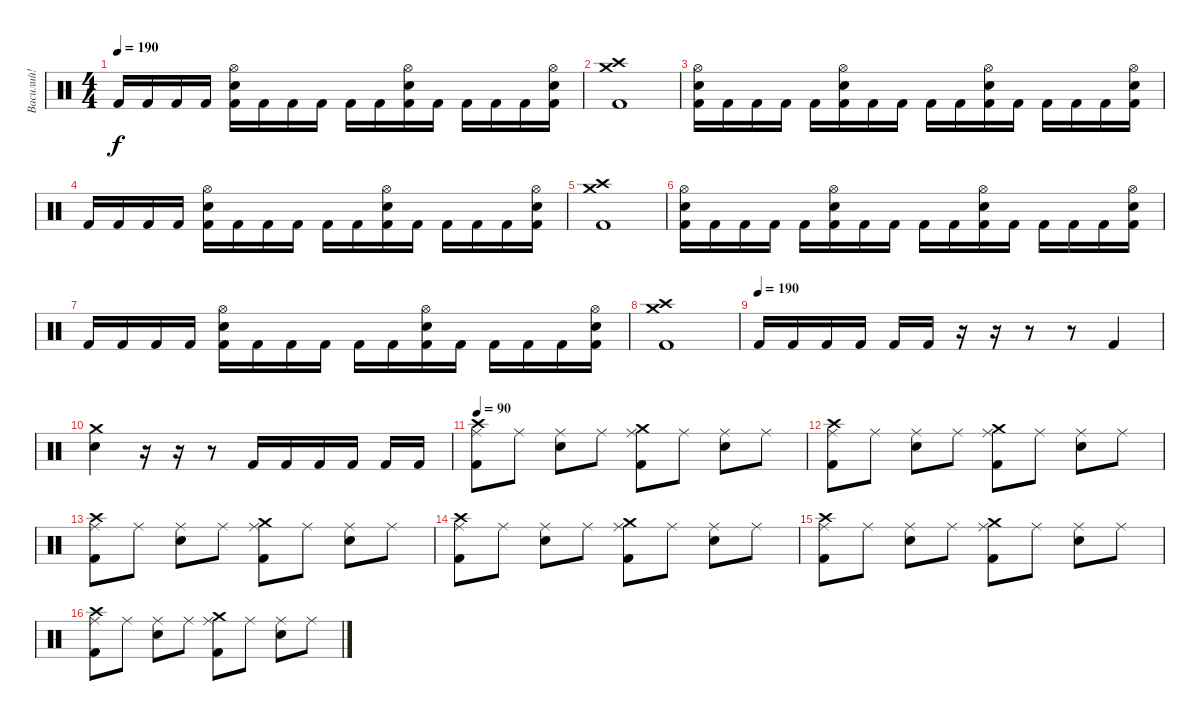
\track ("Василий!" "Василий!") {instrument percussion}
\staff {score}
\articulation defaults
\ts (4 4)
\tempo 190
\clef neutral
\ks c "Kick (hit) 2".16{dy f} "Kick (hit) 2".16 "Kick (hit) 2".16 "Kick (hit) 2".16
("Kick (hit) 2" "Electric Snare (hit)" "Hi-Hat (open)").16 "Kick (hit) 2".16 "Kick (hit) 2".16 "Kick (hit) 2".16 "Kick (hit) 2".16 "Kick (hit) 2".16 ("Kick (hit) 2" "Electric Snare (hit)" "Hi-Hat (open)").16 "Kick (hit) 2".16 "Kick (hit) 2".16 "Kick (hit) 2".16 "Kick (hit) 2".16 ("Kick (hit) 2" "Electric Snare (hit)" "Hi-Hat (open)").16 |
("Kick (hit) 2" "Crash high (hit)" "Crash medium (hit)").1 |
("Kick (hit) 2" "Electric Snare (hit)" "Hi-Hat (open)").16 "Kick (hit) 2".16 "Kick (hit) 2".16 "Kick (hit) 2".16 "Kick (hit) 2".16 ("Kick (hit) 2" "Electric Snare (hit)" "Hi-Hat (open)").16 "Kick (hit) 2".16 "Kick (hit) 2".16 "Kick (hit) 2".16 "Kick (hit) 2".16 ("Kick (hit) 2" "Electric Snare (hit)" "Hi-Hat (open)").16 "Kick (hit) 2".16 "Kick (hit) 2".16 "Kick (hit) 2".16 "Kick (hit) 2".16 ("Kick (hit) 2" "Electric Snare (hit)" "Hi-Hat (open)").16 |
"Kick (hit) 2".16 "Kick (hit) 2".16 "Kick (hit) 2".16 "Kick (hit) 2".16 ("Kick (hit) 2" "Electric Snare (hit)" "Hi-Hat (open)").16 "Kick (hit) 2".16 "Kick (hit) 2".16 "Kick (hit) 2".16 "Kick (hit) 2".16 "Kick (hit) 2".16 ("Kick (hit) 2" "Electric Snare (hit)" "Hi-Hat (open)").16 "Kick (hit) 2".16 "Kick (hit) 2".16 "Kick (hit) 2".16 "Kick (hit) 2".16 ("Kick (hit) 2" "Electric Snare (hit)" "Hi-Hat (open)").16 |
("Kick (hit) 2" "Crash high (hit)" "Crash medium (hit)").1 |
("Kick (hit) 2" "Electric Snare (hit)" "Hi-Hat (open)").16 "Kick (hit) 2".16 "Kick (hit) 2".16 "Kick (hit) 2".16 "Kick (hit) 2".16 ("Kick (hit) 2" "Electric Snare (hit)" "Hi-Hat (open)").16 "Kick (hit) 2".16 "Kick (hit) 2".16 "Kick (hit) 2".16 "Kick (hit) 2".16 ("Kick (hit) 2" "Electric Snare (hit)" "Hi-Hat (open)").16 "Kick (hit) 2".16 "Kick (hit) 2".16 "Kick (hit) 2".16 "Kick (hit) 2".16 ("Kick (hit) 2" "Electric Snare (hit)" "Hi-Hat (open)").16 |
"Kick (hit) 2".16 "Kick (hit) 2".16 "Kick (hit) 2".16 "Kick (hit) 2".16 ("Kick (hit) 2" "Electric Snare (hit)" "Hi-Hat (open)").16 "Kick (hit) 2".16 "Kick (hit) 2".16 "Kick (hit) 2".16 "Kick (hit) 2".16 "Kick (hit) 2".16 ("Kick (hit) 2" "Electric Snare (hit)" "Hi-Hat (open)").16 "Kick (hit) 2".16 "Kick (hit) 2".16 "Kick (hit) 2".16 "Kick (hit) 2".16 ("Kick (hit) 2" "Electric Snare (hit)" "Hi-Hat (open)").16 |
("Kick (hit) 2" "Crash high (hit)" "Crash medium (hit)").1 |
\tempo (190)
"Kick (hit) 2".16 "Kick (hit) 2".16 "Kick (hit) 2".16 "Kick (hit) 2".16 "Kick (hit) 2".16 "Kick (hit) 2".16 r.16 r.16 r.8 r.8 "Kick (hit) 2".4 |
("Electric Snare (hit)" "Crash medium (hit)").4 r.16 r.16 r.8 "Kick (hit) 2".16 "Kick (hit) 2".16 "Kick (hit) 2".16 "Kick (hit) 2".16 "Kick (hit) 2".16 "Kick (hit) 2".16 |
\tempo 90
("Ride (middle)" "Kick (hit) 2" "Crash high (hit)").8 "Ride (middle)".8 ("Ride (middle)" "Electric Snare (hit)").8 "Ride (middle)".8 ("Ride (middle)" "Kick (hit) 2" "Crash medium (hit)").8 "Ride (middle)".8 ("Ride (middle)" "Electric Snare (hit)").8 "Ride (middle)".8 |
("Ride (middle)" "Kick (hit) 2" "Crash high (hit)").8 "Ride (middle)".8 ("Ride (middle)" "Electric Snare (hit)").8 "Ride (middle)".8 ("Ride (middle)" "Kick (hit) 2" "Crash medium (hit)").8 "Ride (middle)".8 ("Ride (middle)" "Electric Snare (hit)").8 "Ride (middle)".8 |
("Ride (middle)" "Kick (hit) 2" "Crash high (hit)").8 "Ride (middle)".8 ("Ride (middle)" "Electric Snare (hit)").8 "Ride (middle)".8 ("Ride (middle)" "Kick (hit) 2" "Crash medium (hit)").8 "Ride (middle)".8 ("Ride (middle)" "Electric Snare (hit)").8 "Ride (middle)".8 |
("Ride (middle)" "Kick (hit) 2" "Crash high (hit)").8 "Ride (middle)".8 ("Ride (middle)" "Electric Snare (hit)").8 "Ride (middle)".8 ("Ride (middle)" "Kick (hit) 2" "Crash medium (hit)").8 "Ride (middle)".8 ("Ride (middle)" "Electric Snare (hit)").8 "Ride (middle)".8 |
("Ride (middle)" "Kick (hit) 2" "Crash high (hit)").8 "Ride (middle)".8 ("Ride (middle)" "Electric Snare (hit)").8 "Ride (middle)".8 ("Ride (middle)" "Kick (hit) 2" "Crash medium (hit)").8 "Ride (middle)".8 ("Ride (middle)" "Electric Snare (hit)").8 "Ride (middle)".8 |
("Ride (middle)" "Kick (hit) 2" "Crash high (hit)").8 "Ride (middle)".8 ("Ride (middle)" "Electric Snare (hit)").8 "Ride (middle)".8 ("Ride (middle)" "Kick (hit) 2" "Crash medium (hit)").8 "Ride (middle)".8 ("Ride (middle)" "Electric Snare (hit)").8 "Ride (middle)".8
